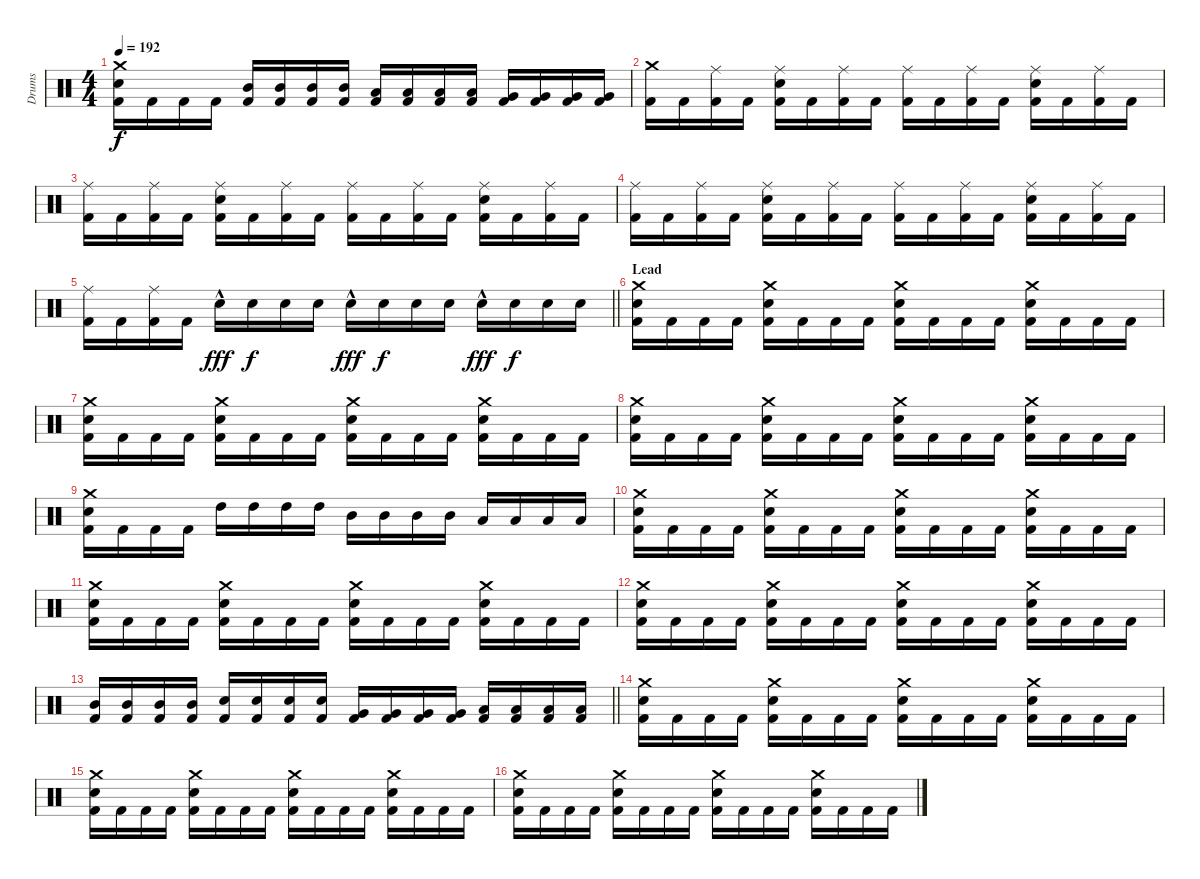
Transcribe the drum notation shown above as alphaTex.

\track ("Drums" "Drums") {instrument percussion}
\staff {score}
\articulation defaults
\ts (4 4)
\tempo 192
\clef neutral
\ks c
("Kick (hit) 2" "Snare (hit) 2" "Crash medium (hit)").16{dy f} "Kick (hit) 2".16 "Kick (hit) 2".16 "Kick (hit) 2".16 ("Kick (hit) 2" "Mid Tom (hit)").16 ("Kick (hit) 2" "Mid Tom (hit)").16 ("Kick (hit) 2" "Mid Tom (hit)").16 ("Kick (hit) 2" "Mid Tom (hit)").16 ("Kick (hit) 2" "Low Tom (hit)").16 ("Kick (hit) 2" "Low Tom (hit)").16 ("Kick (hit) 2" "Low Tom (hit)").16 ("Kick (hit) 2" "Low Tom (hit)").16 ("Kick (hit) 2" "Very Low Tom (hit)").16 ("Kick (hit) 2" "Very Low Tom (hit)").16 ("Kick (hit) 2" "Very Low Tom (hit)").16 ("Kick (hit) 2" "Very Low Tom (hit)").16 |
("Kick (hit) 2" "Crash medium (hit)").16 "Kick (hit) 2".16 ("Kick (hit) 2" "Ride (middle)").16 "Kick (hit) 2".16 ("Kick (hit) 2" "Snare (hit) 2" "Ride (middle)").16 "Kick (hit) 2".16 ("Kick (hit) 2" "Ride (middle)").16 "Kick (hit) 2".16 ("Kick (hit) 2" "Ride (middle)").16 "Kick (hit) 2".16 ("Kick (hit) 2" "Ride (middle)").16 "Kick (hit) 2".16 ("Kick (hit) 2" "Snare (hit) 2" "Ride (middle)").16 "Kick (hit) 2".16 ("Kick (hit) 2" "Ride (middle)").16 "Kick (hit) 2".16 |
("Kick (hit) 2" "Ride (middle)").16 "Kick (hit) 2".16 ("Kick (hit) 2" "Ride (middle)").16 "Kick (hit) 2".16 ("Kick (hit) 2" "Snare (hit) 2" "Ride (middle)").16 "Kick (hit) 2".16 ("Kick (hit) 2" "Ride (middle)").16 "Kick (hit) 2".16 ("Kick (hit) 2" "Ride (middle)").16 "Kick (hit) 2".16 ("Kick (hit) 2" "Ride (middle)").16 "Kick (hit) 2".16 ("Kick (hit) 2" "Snare (hit) 2" "Ride (middle)").16 "Kick (hit) 2".16 ("Kick (hit) 2" "Ride (middle)").16 "Kick (hit) 2".16 |
("Kick (hit) 2" "Ride (middle)").16 "Kick (hit) 2".16 ("Kick (hit) 2" "Ride (middle)").16 "Kick (hit) 2".16 ("Kick (hit) 2" "Snare (hit) 2" "Ride (middle)").16 "Kick (hit) 2".16 ("Kick (hit) 2" "Ride (middle)").16 "Kick (hit) 2".16 ("Kick (hit) 2" "Ride (middle)").16 "Kick (hit) 2".16 ("Kick (hit) 2" "Ride (middle)").16 "Kick (hit) 2".16 ("Kick (hit) 2" "Snare (hit) 2" "Ride (middle)").16 "Kick (hit) 2".16 ("Kick (hit) 2" "Ride (middle)").16 "Kick (hit) 2".16 |
\barLineRight lightlight
("Kick (hit) 2" "Ride (middle)").16 "Kick (hit) 2".16 ("Kick (hit) 2" "Ride (middle)").16 "Kick (hit) 2".16 "Snare (hit) 2"{hac}.16{dy fff} "Snare (hit) 2".16{dy f} "Snare (hit) 2".16 "Snare (hit) 2".16 "Snare (hit) 2"{hac}.16{dy fff} "Snare (hit) 2".16{dy f} "Snare (hit) 2".16 "Snare (hit) 2".16 "Snare (hit) 2"{hac}.16{dy fff} "Snare (hit) 2".16{dy f} "Snare (hit) 2".16 "Snare (hit) 2".16 |
\section ("" "Lead")
("Kick (hit) 2" "Snare (hit) 2" "Crash medium (hit)").16 "Kick (hit) 2".16 "Kick (hit) 2".16 "Kick (hit) 2".16 ("Kick (hit) 2" "Snare (hit) 2" "Crash medium (hit)").16 "Kick (hit) 2".16 "Kick (hit) 2".16 "Kick (hit) 2".16 ("Kick (hit) 2" "Snare (hit) 2" "Crash medium (hit)").16 "Kick (hit) 2".16 "Kick (hit) 2".16 "Kick (hit) 2".16 ("Kick (hit) 2" "Snare (hit) 2" "Crash medium (hit)").16 "Kick (hit) 2".16 "Kick (hit) 2".16 "Kick (hit) 2".16 |
("Kick (hit) 2" "Snare (hit) 2" "Crash medium (hit)").16 "Kick (hit) 2".16 "Kick (hit) 2".16 "Kick (hit) 2".16 ("Kick (hit) 2" "Snare (hit) 2" "Crash medium (hit)").16 "Kick (hit) 2".16 "Kick (hit) 2".16 "Kick (hit) 2".16 ("Kick (hit) 2" "Snare (hit) 2" "Crash medium (hit)").16 "Kick (hit) 2".16 "Kick (hit) 2".16 "Kick (hit) 2".16 ("Kick (hit) 2" "Snare (hit) 2" "Crash medium (hit)").16 "Kick (hit) 2".16 "Kick (hit) 2".16 "Kick (hit) 2".16 |
("Kick (hit) 2" "Snare (hit) 2" "Crash medium (hit)").16 "Kick (hit) 2".16 "Kick (hit) 2".16 "Kick (hit) 2".16 ("Kick (hit) 2" "Snare (hit) 2" "Crash medium (hit)").16 "Kick (hit) 2".16 "Kick (hit) 2".16 "Kick (hit) 2".16 ("Kick (hit) 2" "Snare (hit) 2" "Crash medium (hit)").16 "Kick (hit) 2".16 "Kick (hit) 2".16 "Kick (hit) 2".16 ("Kick (hit) 2" "Snare (hit) 2" "Crash medium (hit)").16 "Kick (hit) 2".16 "Kick (hit) 2".16 "Kick (hit) 2".16 |
("Kick (hit) 2" "Snare (hit) 2" "Crash medium (hit)").16 "Kick (hit) 2".16 "Kick (hit) 2".16 "Kick (hit) 2".16 "High Tom (hit)".16 "High Tom (hit)".16 "High Tom (hit)".16 "High Tom (hit)".16 "Mid Tom (hit)".16 "Mid Tom (hit)".16 "Mid Tom (hit)".16 "Mid Tom (hit)".16 "Low Tom (hit)".16 "Low Tom (hit)".16 "Low Tom (hit)".16 "Low Tom (hit)".16 |
("Kick (hit) 2" "Snare (hit) 2" "Crash medium (hit)").16 "Kick (hit) 2".16 "Kick (hit) 2".16 "Kick (hit) 2".16 ("Kick (hit) 2" "Snare (hit) 2" "Crash medium (hit)").16 "Kick (hit) 2".16 "Kick (hit) 2".16 "Kick (hit) 2".16 ("Kick (hit) 2" "Snare (hit) 2" "Crash medium (hit)").16 "Kick (hit) 2".16 "Kick (hit) 2".16 "Kick (hit) 2".16 ("Kick (hit) 2" "Snare (hit) 2" "Crash medium (hit)").16 "Kick (hit) 2".16 "Kick (hit) 2".16 "Kick (hit) 2".16 |
("Kick (hit) 2" "Snare (hit) 2" "Crash medium (hit)").16 "Kick (hit) 2".16 "Kick (hit) 2".16 "Kick (hit) 2".16 ("Kick (hit) 2" "Snare (hit) 2" "Crash medium (hit)").16 "Kick (hit) 2".16 "Kick (hit) 2".16 "Kick (hit) 2".16 ("Kick (hit) 2" "Snare (hit) 2" "Crash medium (hit)").16 "Kick (hit) 2".16 "Kick (hit) 2".16 "Kick (hit) 2".16 ("Kick (hit) 2" "Snare (hit) 2" "Crash medium (hit)").16 "Kick (hit) 2".16 "Kick (hit) 2".16 "Kick (hit) 2".16 |
("Kick (hit) 2" "Snare (hit) 2" "Crash medium (hit)").16 "Kick (hit) 2".16 "Kick (hit) 2".16 "Kick (hit) 2".16 ("Kick (hit) 2" "Snare (hit) 2" "Crash medium (hit)").16 "Kick (hit) 2".16 "Kick (hit) 2".16 "Kick (hit) 2".16 ("Kick (hit) 2" "Snare (hit) 2" "Crash medium (hit)").16 "Kick (hit) 2".16 "Kick (hit) 2".16 "Kick (hit) 2".16 ("Kick (hit) 2" "Snare (hit) 2" "Crash medium (hit)").16 "Kick (hit) 2".16 "Kick (hit) 2".16 "Kick (hit) 2".16 |
\barLineRight lightlight
("Kick (hit) 2" "Mid Tom (hit)").16 ("Kick (hit) 2" "Mid Tom (hit)").16 ("Kick (hit) 2" "Mid Tom (hit)").16 ("Kick (hit) 2" "Mid Tom (hit)").16 ("Kick (hit) 2" "Snare (hit) 2").16 ("Kick (hit) 2" "Snare (hit) 2").16 ("Kick (hit) 2" "Snare (hit) 2").16 ("Kick (hit) 2" "Snare (hit) 2").16 ("Kick (hit) 2" "Very Low Tom (hit)").16 ("Kick (hit) 2" "Very Low Tom (hit)").16 ("Kick (hit) 2" "Very Low Tom (hit)").16 ("Kick (hit) 2" "Very Low Tom (hit)").16 ("Kick (hit) 2" "Low Floor Tom (hit)").16 ("Kick (hit) 2" "Low Floor Tom (hit)").16 ("Kick (hit) 2" "Low Floor Tom (hit)").16 ("Kick (hit) 2" "Low Floor Tom (hit)").16 |
\section ("" "")
("Kick (hit) 2" "Snare (hit) 2" "Crash medium (hit)").16 "Kick (hit) 2".16 "Kick (hit) 2".16 "Kick (hit) 2".16 ("Kick (hit) 2" "Snare (hit) 2" "Crash medium (hit)").16 "Kick (hit) 2".16 "Kick (hit) 2".16 "Kick (hit) 2".16 ("Kick (hit) 2" "Snare (hit) 2" "Crash medium (hit)").16 "Kick (hit) 2".16 "Kick (hit) 2".16 "Kick (hit) 2".16 ("Kick (hit) 2" "Snare (hit) 2" "Crash medium (hit)").16 "Kick (hit) 2".16 "Kick (hit) 2".16 "Kick (hit) 2".16 |
("Kick (hit) 2" "Snare (hit) 2" "Crash medium (hit)").16 "Kick (hit) 2".16 "Kick (hit) 2".16 "Kick (hit) 2".16 ("Kick (hit) 2" "Snare (hit) 2" "Crash medium (hit)").16 "Kick (hit) 2".16 "Kick (hit) 2".16 "Kick (hit) 2".16 ("Kick (hit) 2" "Snare (hit) 2" "Crash medium (hit)").16 "Kick (hit) 2".16 "Kick (hit) 2".16 "Kick (hit) 2".16 ("Kick (hit) 2" "Snare (hit) 2" "Crash medium (hit)").16 "Kick (hit) 2".16 "Kick (hit) 2".16 "Kick (hit) 2".16 |
("Kick (hit) 2" "Snare (hit) 2" "Crash medium (hit)").16 "Kick (hit) 2".16 "Kick (hit) 2".16 "Kick (hit) 2".16 ("Kick (hit) 2" "Snare (hit) 2" "Crash medium (hit)").16 "Kick (hit) 2".16 "Kick (hit) 2".16 "Kick (hit) 2".16 ("Kick (hit) 2" "Snare (hit) 2" "Crash medium (hit)").16 "Kick (hit) 2".16 "Kick (hit) 2".16 "Kick (hit) 2".16 ("Kick (hit) 2" "Snare (hit) 2" "Crash medium (hit)").16 "Kick (hit) 2".16 "Kick (hit) 2".16 "Kick (hit) 2".16
